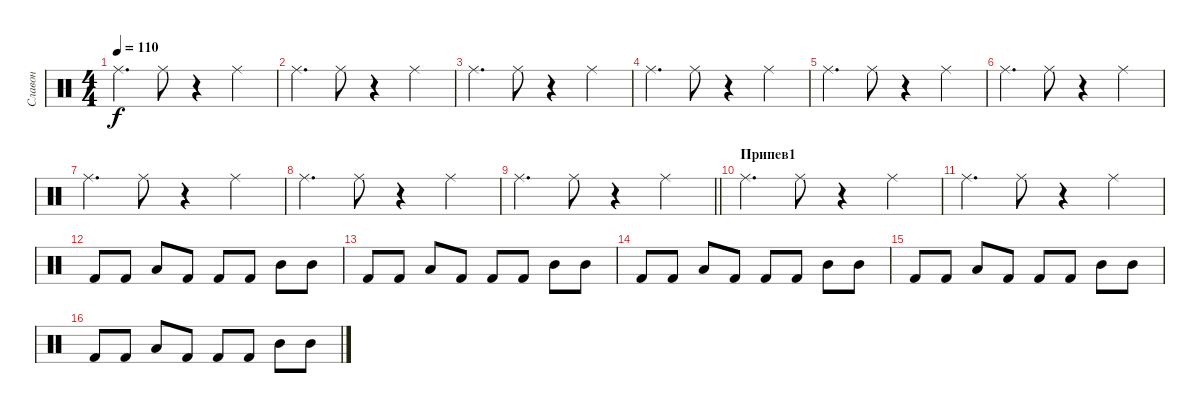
\track ("Славон" "Славон") {instrument percussion}
\staff {score}
\articulation defaults
\ts (4 4)
\tempo 110
\clef neutral
\ks c "Ride (middle)".4{d dy f} "Ride (middle)".8
r.4 "Ride (middle)".4 |
"Ride (middle)".4{d} "Ride (middle)".8 r.4 "Ride (middle)".4 |
"Ride (middle)".4{d} "Ride (middle)".8 r.4 "Ride (middle)".4 |
"Ride (middle)".4{d} "Ride (middle)".8 r.4 "Ride (middle)".4 |
"Ride (middle)".4{d} "Ride (middle)".8 r.4 "Ride (middle)".4 |
"Ride (middle)".4{d} "Ride (middle)".8 r.4 "Ride (middle)".4 |
"Ride (middle)".4{d} "Ride (middle)".8 r.4 "Ride (middle)".4 |
"Ride (middle)".4{d} "Ride (middle)".8 r.4 "Ride (middle)".4 |
\barLineRight lightlight "Ride (middle)".4{d} "Ride (middle)".8
r.4 "Ride (middle)".4 |
\section ("" "Припев1")
"Ride (middle)".4{d} "Ride (middle)".8 r.4 "Ride (middle)".4 |
"Ride (middle)".4{d} "Ride (middle)".8 r.4 "Ride (middle)".4 |
"Kick (hit) 2".8 "Kick (hit) 2".8 "Low Tom (hit)".8 "Kick (hit) 2".8 "Kick (hit) 2".8 "Kick (hit) 2".8 "Mid Tom (hit)".8 "Mid Tom (hit)".8 |
"Kick (hit) 2".8 "Kick (hit) 2".8 "Low Tom (hit)".8 "Kick (hit) 2".8 "Kick (hit) 2".8 "Kick (hit) 2".8 "Mid Tom (hit)".8 "Mid Tom (hit)".8 |
"Kick (hit) 2".8 "Kick (hit) 2".8 "Low Tom (hit)".8 "Kick (hit) 2".8 "Kick (hit) 2".8 "Kick (hit) 2".8 "Mid Tom (hit)".8 "Mid Tom (hit)".8 |
"Kick (hit) 2".8 "Kick (hit) 2".8 "Low Tom (hit)".8 "Kick (hit) 2".8 "Kick (hit) 2".8 "Kick (hit) 2".8 "Mid Tom (hit)".8 "Mid Tom (hit)".8 |
"Kick (hit) 2".8 "Kick (hit) 2".8 "Low Tom (hit)".8 "Kick (hit) 2".8 "Kick (hit) 2".8 "Kick (hit) 2".8 "Mid Tom (hit)".8 "Mid Tom (hit)".8
